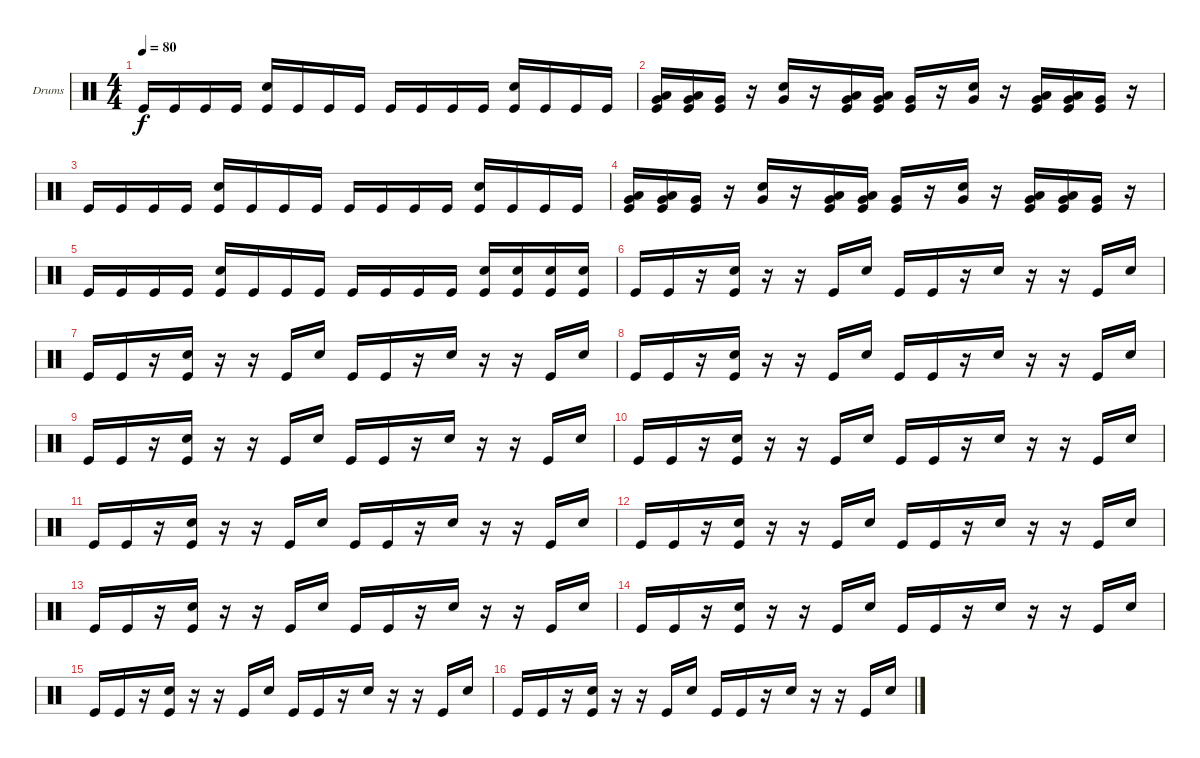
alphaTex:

\bracketExtendMode groupsimilarinstruments
\firstSystemTrackNameOrientation horizontal
\otherSystemsTrackNameOrientation horizontal
\track ("Drumkit" "Drums") {instrument percussion}
\staff {score}
\articulation defaults
\ts (4 4)
\tempo 80
\clef neutral
\scale
0.333333
\ks c "Kick (hit)".16{dy f} "Kick (hit)".16 "Kick (hit)".16 "Kick (hit)".16
("Kick (hit)" "Snare (hit) 2").16 "Kick (hit)".16 "Kick (hit)".16 "Kick (hit)".16 "Kick (hit)".16 "Kick (hit)".16 "Kick (hit)".16 "Kick (hit)".16 ("Kick (hit)" "Snare (hit) 2").16 "Kick (hit)".16 "Kick (hit)".16 "Kick (hit)".16 |
\scale
0.333333 ("Kick (hit)" "Low Tom (hit)" "Very Low Tom (hit)").16 ("Kick (hit)" "Low Tom (hit)" "Very Low Tom (hit)").16 ("Very Low Tom (hit)" "Kick (hit)").16 r.16 ("Very Low Tom (hit)" "Snare (hit) 2").16 r.16 ("Kick (hit)" "Low Tom (hit)" "Very Low Tom (hit)").16 ("Kick (hit)" "Low Tom (hit)" "Very Low Tom (hit)").16 ("Very Low Tom (hit)" "Kick (hit)").16 r.16 ("Very Low Tom (hit)" "Snare (hit) 2").16 r.16 ("Kick (hit)" "Low Tom (hit)" "Very Low Tom (hit)").16 ("Kick (hit)" "Low Tom (hit)" "Very Low Tom (hit)").16 ("Very Low Tom (hit)" "Kick (hit)").16 r.16 |
\scale
0.333333 "Kick (hit)".16 "Kick (hit)".16 "Kick (hit)".16 "Kick (hit)".16 ("Kick (hit)" "Snare (hit) 2").16 "Kick (hit)".16 "Kick (hit)".16 "Kick (hit)".16 "Kick (hit)".16 "Kick (hit)".16 "Kick (hit)".16 "Kick (hit)".16 ("Kick (hit)" "Snare (hit) 2").16 "Kick (hit)".16 "Kick (hit)".16 "Kick (hit)".16 |
\scale
0.333333 ("Kick (hit)" "Low Tom (hit)" "Very Low Tom (hit)").16 ("Kick (hit)" "Low Tom (hit)" "Very Low Tom (hit)").16 ("Very Low Tom (hit)" "Kick (hit)").16 r.16 ("Very Low Tom (hit)" "Snare (hit) 2").16 r.16 ("Kick (hit)" "Low Tom (hit)" "Very Low Tom (hit)").16 ("Kick (hit)" "Low Tom (hit)" "Very Low Tom (hit)").16 ("Very Low Tom (hit)" "Kick (hit)").16 r.16 ("Very Low Tom (hit)" "Snare (hit) 2").16 r.16 ("Kick (hit)" "Low Tom (hit)" "Very Low Tom (hit)").16 ("Kick (hit)" "Low Tom (hit)" "Very Low Tom (hit)").16 ("Very Low Tom (hit)" "Kick (hit)").16 r.16 |
\scale
0.333333 "Kick (hit)".16 "Kick (hit)".16 "Kick (hit)".16 "Kick (hit)".16 ("Kick (hit)" "Snare (hit) 2").16 "Kick (hit)".16 "Kick (hit)".16 "Kick (hit)".16 "Kick (hit)".16 "Kick (hit)".16 "Kick (hit)".16 "Kick (hit)".16 ("Kick (hit)" "Snare (hit) 2").16 ("Kick (hit)" "Snare (hit) 2").16 ("Kick (hit)" "Snare (hit) 2").16 ("Kick (hit)" "Snare (hit) 2").16 |
\scale
0.333333 "Kick (hit)".16 "Kick (hit)".16 r.16 ("Kick (hit)" "Snare (hit) 2").16 r.16 r.16 "Kick (hit)".16 "Snare (hit) 2".16 "Kick (hit)".16 "Kick (hit)".16 r.16 "Snare (hit) 2".16 r.16 r.16 "Kick (hit)".16 "Snare (hit) 2".16 |
\scale
0.333333 "Kick (hit)".16 "Kick (hit)".16 r.16 ("Kick (hit)" "Snare (hit) 2").16 r.16 r.16 "Kick (hit)".16 "Snare (hit) 2".16 "Kick (hit)".16 "Kick (hit)".16 r.16 "Snare (hit) 2".16 r.16 r.16 "Kick (hit)".16 "Snare (hit) 2".16 |
\scale
0.333333 "Kick (hit)".16 "Kick (hit)".16 r.16 ("Kick (hit)" "Snare (hit) 2").16 r.16 r.16 "Kick (hit)".16 "Snare (hit) 2".16 "Kick (hit)".16 "Kick (hit)".16 r.16 "Snare (hit) 2".16 r.16 r.16 "Kick (hit)".16 "Snare (hit) 2".16 |
\scale
0.333333 "Kick (hit)".16 "Kick (hit)".16 r.16 ("Kick (hit)" "Snare (hit) 2").16 r.16 r.16 "Kick (hit)".16 "Snare (hit) 2".16 "Kick (hit)".16 "Kick (hit)".16 r.16 "Snare (hit) 2".16 r.16 r.16 "Kick (hit)".16 "Snare (hit) 2".16 |
\scale
0.333333 "Kick (hit)".16 "Kick (hit)".16 r.16 ("Kick (hit)" "Snare (hit) 2").16 r.16 r.16 "Kick (hit)".16 "Snare (hit) 2".16 "Kick (hit)".16 "Kick (hit)".16 r.16 "Snare (hit) 2".16 r.16 r.16 "Kick (hit)".16 "Snare (hit) 2".16 |
\scale
0.333333 "Kick (hit)".16 "Kick (hit)".16 r.16 ("Kick (hit)" "Snare (hit) 2").16 r.16 r.16 "Kick (hit)".16 "Snare (hit) 2".16 "Kick (hit)".16 "Kick (hit)".16 r.16 "Snare (hit) 2".16 r.16 r.16 "Kick (hit)".16 "Snare (hit) 2".16 |
\scale
0.333333 "Kick (hit)".16 "Kick (hit)".16 r.16 ("Kick (hit)" "Snare (hit) 2").16 r.16 r.16 "Kick (hit)".16 "Snare (hit) 2".16 "Kick (hit)".16 "Kick (hit)".16 r.16 "Snare (hit) 2".16 r.16 r.16 "Kick (hit)".16 "Snare (hit) 2".16 |
\scale
0.333333 "Kick (hit)".16 "Kick (hit)".16 r.16 ("Kick (hit)" "Snare (hit) 2").16 r.16 r.16 "Kick (hit)".16 "Snare (hit) 2".16 "Kick (hit)".16 "Kick (hit)".16 r.16 "Snare (hit) 2".16 r.16 r.16 "Kick (hit)".16 "Snare (hit) 2".16 |
\scale
0.333333 "Kick (hit)".16 "Kick (hit)".16 r.16 ("Kick (hit)" "Snare (hit) 2").16 r.16 r.16 "Kick (hit)".16 "Snare (hit) 2".16 "Kick (hit)".16 "Kick (hit)".16 r.16 "Snare (hit) 2".16 r.16 r.16 "Kick (hit)".16 "Snare (hit) 2".16 |
\scale
0.333333 "Kick (hit)".16 "Kick (hit)".16 r.16 ("Kick (hit)" "Snare (hit) 2").16 r.16 r.16 "Kick (hit)".16 "Snare (hit) 2".16 "Kick (hit)".16 "Kick (hit)".16 r.16 "Snare (hit) 2".16 r.16 r.16 "Kick (hit)".16 "Snare (hit) 2".16 |
\scale
0.333333 "Kick (hit)".16 "Kick (hit)".16 r.16 ("Kick (hit)" "Snare (hit) 2").16 r.16 r.16 "Kick (hit)".16 "Snare (hit) 2".16 "Kick (hit)".16 "Kick (hit)".16 r.16 "Snare (hit) 2".16 r.16 r.16 "Kick (hit)".16 "Snare (hit) 2".16
